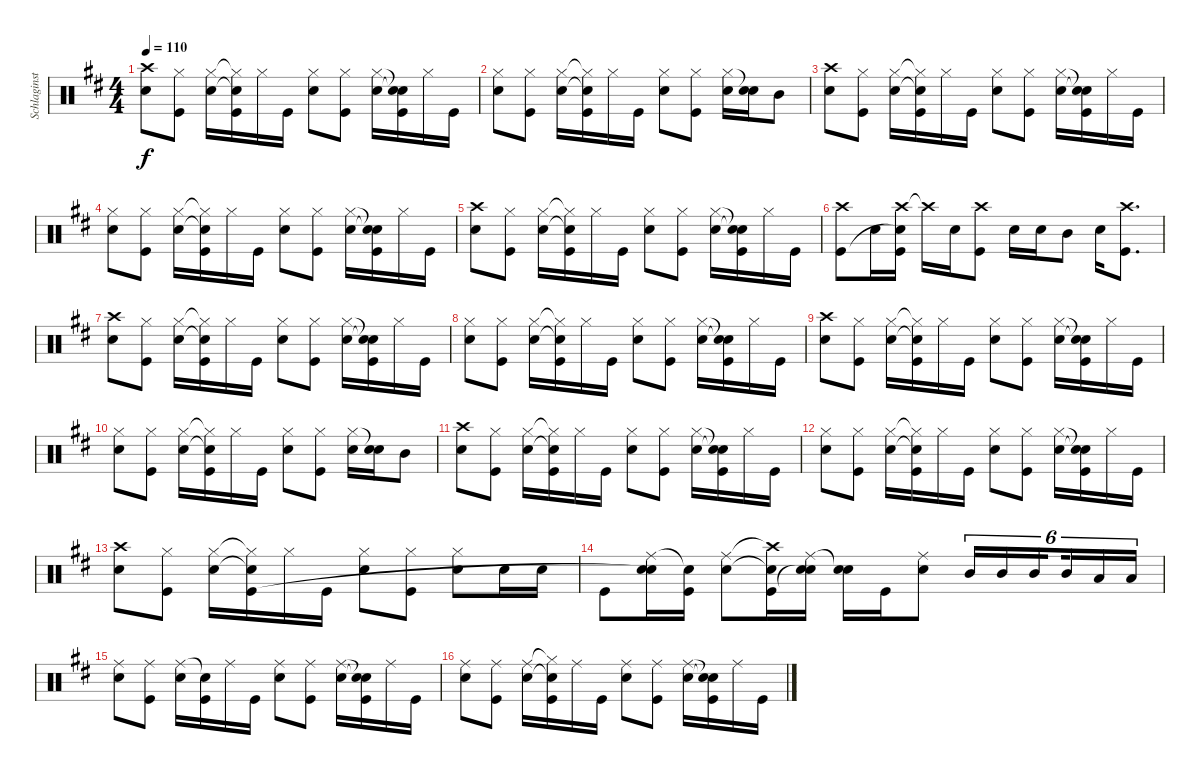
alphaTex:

\track ("Schlaginstrumente - Auswahl" "Schlaginst") {instrument percussion}
\staff {score}
\articulation defaults
\ts (4 4)
\tempo 110
\clef neutral
\ks d
("Crash high (hit)" "Snare (hit) 2").8{dy f} ("Hi-Hat (closed)" "Kick (hit)").8 ("Hi-Hat (closed)" "Snare (hit) 2").16 ("Hi-Hat (closed)"{t} "Snare (hit)"{t} "Kick (hit)").16 "Hi-Hat (closed)".16 "Kick (hit)".16 ("Hi-Hat (closed)" "Snare (hit) 2").8 ("Hi-Hat (closed)" "Kick (hit)").8 ("Hi-Hat (closed)" "Snare (hit) 2").16 ("Snare (hit)"{t} "Snare (hit)"{t} "Kick (hit)").16 "Hi-Hat (closed)".16 "Kick (hit)".16 |
("Hi-Hat (closed)" "Snare (hit) 2").8 ("Hi-Hat (closed)" "Kick (hit)").8 ("Hi-Hat (closed)" "Snare (hit) 2").16 ("Hi-Hat (closed)"{t} "Snare (hit)"{t} "Kick (hit)").16 "Hi-Hat (closed)".16 "Kick (hit)".16 ("Hi-Hat (closed)" "Snare (hit) 2").8 ("Hi-Hat (closed)" "Kick (hit)").8 ("Hi-Hat (closed)" "Snare (hit) 2").16 ("Snare (hit)"{t} "Snare (hit) 2").16 "Mid Tom (hit)".8 |
("Crash high (hit)" "Snare (hit) 2").8 ("Hi-Hat (closed)" "Kick (hit)").8 ("Hi-Hat (closed)" "Snare (hit) 2").16 ("Hi-Hat (closed)"{t} "Snare (hit)"{t} "Kick (hit)").16 "Hi-Hat (closed)".16 "Kick (hit)".16 ("Hi-Hat (closed)" "Snare (hit) 2").8 ("Hi-Hat (closed)" "Kick (hit)").8 ("Hi-Hat (closed)" "Snare (hit) 2").16 ("Snare (hit)"{t} "Snare (hit)"{t} "Kick (hit)").16 "Hi-Hat (closed)".16 "Kick (hit)".16 |
("Hi-Hat (closed)" "Snare (hit) 2").8 ("Hi-Hat (closed)" "Kick (hit)").8 ("Hi-Hat (closed)" "Snare (hit) 2").16 ("Hi-Hat (closed)"{t} "Snare (hit)"{t} "Kick (hit)").16 "Hi-Hat (closed)".16 "Kick (hit)".16 ("Hi-Hat (closed)" "Snare (hit) 2").8 ("Hi-Hat (closed)" "Kick (hit)").8 ("Hi-Hat (closed)" "Snare (hit) 2").16 ("Snare (hit)"{t} "Snare (hit)"{t} "Kick (hit)").16 "Hi-Hat (closed)".16 "Kick (hit)".16 |
("Crash high (hit)" "Snare (hit) 2").8 ("Hi-Hat (closed)" "Kick (hit)").8 ("Hi-Hat (closed)" "Snare (hit) 2").16 ("Hi-Hat (closed)"{t} "Snare (hit)"{t} "Kick (hit)").16 "Hi-Hat (closed)".16 "Kick (hit)".16 ("Hi-Hat (closed)" "Snare (hit) 2").8 ("Hi-Hat (closed)" "Kick (hit)").8 ("Hi-Hat (closed)" "Snare (hit) 2").16 ("Snare (hit)"{t} "Snare (hit)"{t} "Kick (hit)").16 "Hi-Hat (closed)".16 "Kick (hit)".16 |
("Crash high (hit)" "Kick (hit)").8 "Snare (hit) 2".16 ("Crash high (hit)" "Snare (hit)"{t} "Kick (hit)").16 "Crash high (hit)"{t}.16 "Snare (hit) 2".16 ("Crash high (hit)" "Kick (hit)").8 "Snare (hit) 2".16 "Snare (hit) 2".16 "Mid Tom (hit)".8 "Snare (hit) 2".16 ("Crash high (hit)" "Kick (hit)").8{d} |
("Crash high (hit)" "Snare (hit) 2").8 ("Hi-Hat (closed)" "Kick (hit)").8 ("Hi-Hat (closed)" "Snare (hit) 2").16 ("Hi-Hat (closed)"{t} "Snare (hit)"{t} "Kick (hit)").16 "Hi-Hat (closed)".16 "Kick (hit)".16 ("Hi-Hat (closed)" "Snare (hit) 2").8 ("Hi-Hat (closed)" "Kick (hit)").8 ("Hi-Hat (closed)" "Snare (hit) 2").16 ("Snare (hit)"{t} "Snare (hit)"{t} "Kick (hit)").16 "Hi-Hat (closed)".16 "Kick (hit)".16 |
("Hi-Hat (closed)" "Snare (hit) 2").8 ("Hi-Hat (closed)" "Kick (hit)").8 ("Hi-Hat (closed)" "Snare (hit) 2").16 ("Hi-Hat (closed)"{t} "Snare (hit)"{t} "Kick (hit)").16 "Hi-Hat (closed)".16 "Kick (hit)".16 ("Hi-Hat (closed)" "Snare (hit) 2").8 ("Hi-Hat (closed)" "Kick (hit)").8 ("Hi-Hat (closed)" "Snare (hit) 2").16 ("Snare (hit)"{t} "Snare (hit)"{t} "Kick (hit)").16 "Hi-Hat (closed)".16 "Kick (hit)".16 |
("Crash high (hit)" "Snare (hit) 2").8 ("Hi-Hat (closed)" "Kick (hit)").8 ("Hi-Hat (closed)" "Snare (hit) 2").16 ("Hi-Hat (closed)"{t} "Snare (hit)"{t} "Kick (hit)").16 "Hi-Hat (closed)".16 "Kick (hit)".16 ("Hi-Hat (closed)" "Snare (hit) 2").8 ("Hi-Hat (closed)" "Kick (hit)").8 ("Hi-Hat (closed)" "Snare (hit) 2").16 ("Snare (hit)"{t} "Snare (hit)"{t} "Kick (hit)").16 "Hi-Hat (closed)".16 "Kick (hit)".16 |
("Hi-Hat (closed)" "Snare (hit) 2").8 ("Hi-Hat (closed)" "Kick (hit)").8 ("Hi-Hat (closed)" "Snare (hit) 2").16 ("Hi-Hat (closed)"{t} "Snare (hit)"{t} "Kick (hit)").16 "Hi-Hat (closed)".16 "Kick (hit)".16 ("Hi-Hat (closed)" "Snare (hit) 2").8 ("Hi-Hat (closed)" "Kick (hit)").8 ("Hi-Hat (closed)" "Snare (hit) 2").16 ("Snare (hit)"{t} "Snare (hit) 2").16 "Mid Tom (hit)".8 |
("Crash high (hit)" "Snare (hit) 2").8 ("Hi-Hat (closed)" "Kick (hit)").8 ("Hi-Hat (closed)" "Snare (hit) 2").16 ("Hi-Hat (closed)"{t} "Snare (hit)"{t} "Kick (hit)").16 "Hi-Hat (closed)".16 "Kick (hit)".16 ("Hi-Hat (closed)" "Snare (hit) 2").8 ("Hi-Hat (closed)" "Kick (hit)").8 ("Hi-Hat (closed)" "Snare (hit) 2").16 ("Snare (hit)"{t} "Snare (hit)"{t} "Kick (hit)").16 "Hi-Hat (closed)".16 "Kick (hit)".16 |
("Hi-Hat (closed)" "Snare (hit) 2").8 ("Hi-Hat (closed)" "Kick (hit)").8 ("Hi-Hat (closed)" "Snare (hit) 2").16 ("Hi-Hat (closed)"{t} "Snare (hit)"{t} "Kick (hit)").16 "Hi-Hat (closed)".16 "Kick (hit)".16 ("Hi-Hat (closed)" "Snare (hit) 2").8 ("Hi-Hat (closed)" "Kick (hit)").8 ("Hi-Hat (closed)" "Snare (hit) 2").16 ("Snare (hit)"{t} "Snare (hit)"{t} "Kick (hit)").16 "Hi-Hat (closed)".16 "Kick (hit)".16 |
("Crash high (hit)" "Snare (hit) 2").8 ("Hi-Hat (closed)" "Kick (hit)").8 ("Hi-Hat (closed)" "Snare (hit) 2").16 ("Hi-Hat (closed)"{t} "Snare (hit)"{t} "Kick (hit)").16 "Hi-Hat (closed)".16 "Kick (hit)".16 ("Hi-Hat (closed)" "Snare (hit) 2").8 ("Hi-Hat (closed)" "Kick (hit)").8 ("Hi-Hat (closed)" "Snare (hit) 2").8 "Snare (hit) 2".16 "Snare (hit) 2".16 |
"Kick (hit)".8 ("Ride (middle)" "Snare (hit) 2" "Snare (hit)"{t}).16 ("Snare (hit)"{t} "Kick (hit)").16 ("Ride (middle)" "Snare (hit) 2").8 ("Crash high (hit)"{t} "Snare (hit)"{t} "Kick (hit)").16 ("Ride (middle)" "Snare (hit) 2" "Snare (hit)"{t}).16 ("Snare (hit)"{t} "Snare (hit) 2").16 "Kick (hit)".16 ("Ride (middle)" "Snare (hit) 2").8 "Mid Tom (hit)".16{tu (6 4)} "Mid Tom (hit)".16{tu (6 4)} "Mid Tom (hit)".16{tu (6 4) beam splitsecondary} "Mid Tom (hit)".16{tu (6 4)} "Low Tom (hit)".16{tu (6 4)} "Low Tom (hit)".16{tu (6 4)} |
("Ride (middle)" "Snare (hit) 2").8 ("Ride (middle)" "Kick (hit)").8 ("Ride (middle)" "Snare (hit) 2").16 ("Snare (hit)"{t} "Kick (hit)").16 "Ride (middle)".16 "Kick (hit)".16 ("Ride (middle)" "Snare (hit) 2").8 ("Ride (middle)" "Kick (hit)").8 ("Ride (middle)" "Snare (hit) 2").16 ("Snare (hit)"{t} "Snare (hit)"{t} "Kick (hit)").16 "Ride (middle)".16 "Kick (hit)".16 |
("Ride (middle)" "Snare (hit) 2").8 ("Ride (middle)" "Kick (hit)").8 ("Ride (middle)" "Snare (hit) 2").16 ("Hi-Hat (closed)"{t} "Snare (hit)"{t} "Kick (hit)").16 "Ride (middle)".16 "Kick (hit)".16 ("Ride (middle)" "Snare (hit) 2").8 ("Ride (middle)" "Kick (hit)").8 ("Ride (middle)" "Snare (hit) 2").16 ("Snare (hit)"{t} "Snare (hit)"{t} "Kick (hit)").16 "Ride (middle)".16 "Kick (hit)".16
